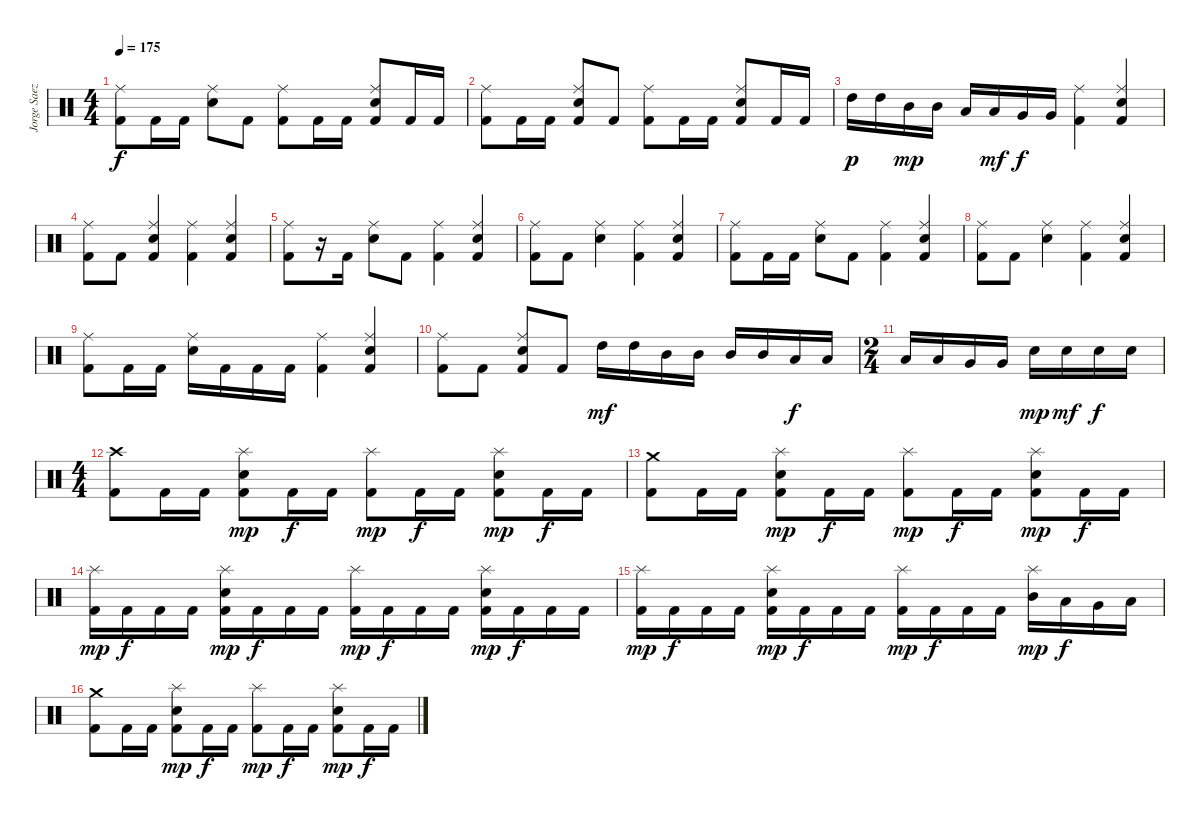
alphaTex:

\track ("Jorge Saez, Drums" "Jorge Saez") {instrument percussion}
\staff
\articulation defaults
\ts (4 4)
\tempo 175
\clef neutral
\ks c
("Kick (hit) 2" "Ride (middle)").8{dy f} "Kick (hit) 2".16 "Kick (hit) 2".16 ("Electric Snare (hit)" "Ride (middle)").8 "Kick (hit) 2".8 ("Kick (hit) 2" "Ride (middle)").8 "Kick (hit) 2".16 "Kick (hit) 2".16 ("Kick (hit) 2" "Electric Snare (hit)" "Ride (middle)").8 "Kick (hit) 2".16 "Kick (hit) 2".16 |
("Kick (hit) 2" "Ride (middle)").8 "Kick (hit) 2".16 "Kick (hit) 2".16 ("Kick (hit) 2" "Electric Snare (hit)" "Ride (middle)").8 "Kick (hit) 2".8 ("Kick (hit) 2" "Ride (middle)").8 "Kick (hit) 2".16 "Kick (hit) 2".16 ("Kick (hit) 2" "Electric Snare (hit)" "Ride (middle)").8 "Kick (hit) 2".16 "Kick (hit) 2".16 |
"High Tom (hit)".16{dy p} "High Tom (hit)".16 "Mid Tom (hit)".16{dy mp} "Mid Tom (hit)".16 "Low Tom (hit)".16 "Low Tom (hit)".16{dy mf} "Very Low Tom (hit)".16{dy f} "Very Low Tom (hit)".16 ("Kick (hit) 2" "Ride (middle)").4 ("Kick (hit) 2" "Electric Snare (hit)" "Ride (middle)").4 |
("Kick (hit) 2" "Ride (middle)").8 "Kick (hit) 2".8 ("Kick (hit) 2" "Electric Snare (hit)" "Ride (middle)").4 ("Kick (hit) 2" "Ride (middle)").4 ("Kick (hit) 2" "Electric Snare (hit)" "Ride (middle)").4 |
("Kick (hit) 2" "Ride (middle)").8 r.16 "Kick (hit) 2".16 ("Electric Snare (hit)" "Ride (middle)").8 "Kick (hit) 2".8 ("Kick (hit) 2" "Ride (middle)").4 ("Kick (hit) 2" "Electric Snare (hit)" "Ride (middle)").4 |
("Kick (hit) 2" "Ride (middle)").8 "Kick (hit) 2".8 ("Electric Snare (hit)" "Ride (middle)").4 ("Kick (hit) 2" "Ride (middle)").4 ("Kick (hit) 2" "Electric Snare (hit)" "Ride (middle)").4 |
("Kick (hit) 2" "Ride (middle)").8 "Kick (hit) 2".16 "Kick (hit) 2".16 ("Electric Snare (hit)" "Ride (middle)").8 "Kick (hit) 2".8 ("Kick (hit) 2" "Ride (middle)").4 ("Kick (hit) 2" "Electric Snare (hit)" "Ride (middle)").4 |
("Kick (hit) 2" "Ride (middle)").8 "Kick (hit) 2".8 ("Electric Snare (hit)" "Ride (middle)").4 ("Kick (hit) 2" "Ride (middle)").4 ("Kick (hit) 2" "Electric Snare (hit)" "Ride (middle)").4 |
("Kick (hit) 2" "Ride (middle)").8 "Kick (hit) 2".16 "Kick (hit) 2".16 ("Electric Snare (hit)" "Ride (middle)").16 "Kick (hit) 2".16 "Kick (hit) 2".16 "Kick (hit) 2".16 ("Kick (hit) 2" "Ride (middle)").4 ("Kick (hit) 2" "Electric Snare (hit)" "Ride (middle)").4 |
("Kick (hit) 2" "Ride (middle)").8 "Kick (hit) 2".8 ("Kick (hit) 2" "Electric Snare (hit)" "Ride (middle)").8 "Kick (hit) 2".8 "High Tom (hit)".16{dy mf} "High Tom (hit)".16 "Mid Tom (hit)".16 "Mid Tom (hit)".16 "Mid Tom (hit)".16 "Mid Tom (hit)".16 "Low Tom (hit)".16{dy f} "Low Tom (hit)".16 |
\ts (2 4)
"Low Tom (hit)".16 "Low Tom (hit)".16 "Very Low Tom (hit)".16 "Very Low Tom (hit)".16 "Electric Snare (hit)".16{dy mp} "Electric Snare (hit)".16{dy mf} "Electric Snare (hit)".16{dy f} "Electric Snare (hit)".16 |
\ts (4 4)
("Kick (hit) 2" "Crash high (hit)").8 "Kick (hit) 2".16 "Kick (hit) 2".16 ("Kick (hit) 2" "Electric Snare (hit)" "Splash (hit)").8{dy mp} "Kick (hit) 2".16{dy f} "Kick (hit) 2".16 ("Kick (hit) 2" "Splash (hit)").8{dy mp} "Kick (hit) 2".16{dy f} "Kick (hit) 2".16 ("Kick (hit) 2" "Electric Snare (hit)" "Splash (hit)").8{dy mp} "Kick (hit) 2".16{dy f} "Kick (hit) 2".16 |
("Kick (hit) 2" "Crash medium (hit)").8 "Kick (hit) 2".16 "Kick (hit) 2".16 ("Kick (hit) 2" "Electric Snare (hit)" "Splash (hit)").8{dy mp} "Kick (hit) 2".16{dy f} "Kick (hit) 2".16 ("Kick (hit) 2" "Splash (hit)").8{dy mp} "Kick (hit) 2".16{dy f} "Kick (hit) 2".16 ("Kick (hit) 2" "Electric Snare (hit)" "Splash (hit)").8{dy mp} "Kick (hit) 2".16{dy f} "Kick (hit) 2".16 |
("Kick (hit) 2" "Splash (hit)").16{dy mp} "Kick (hit) 2".16{dy f} "Kick (hit) 2".16 "Kick (hit) 2".16 ("Kick (hit) 2" "Electric Snare (hit)" "Splash (hit)").16{dy mp} "Kick (hit) 2".16{dy f} "Kick (hit) 2".16 "Kick (hit) 2".16 ("Kick (hit) 2" "Splash (hit)").16{dy mp} "Kick (hit) 2".16{dy f} "Kick (hit) 2".16 "Kick (hit) 2".16 ("Kick (hit) 2" "Electric Snare (hit)" "Splash (hit)").16{dy mp} "Kick (hit) 2".16{dy f} "Kick (hit) 2".16 "Kick (hit) 2".16 |
("Kick (hit) 2" "Splash (hit)").16{dy mp} "Kick (hit) 2".16{dy f} "Kick (hit) 2".16 "Kick (hit) 2".16 ("Kick (hit) 2" "Electric Snare (hit)" "Splash (hit)").16{dy mp} "Kick (hit) 2".16{dy f} "Kick (hit) 2".16 "Kick (hit) 2".16 ("Kick (hit) 2" "Splash (hit)").16{dy mp} "Kick (hit) 2".16{dy f} "Kick (hit) 2".16 "Kick (hit) 2".16 ("Mid Tom (hit)" "Splash (hit)").16{dy mp} "Low Tom (hit)".16{dy f} "Very Low Tom (hit)".16 "Low Floor Tom (hit)".16 |
("Kick (hit) 2" "Crash medium (hit)").8 "Kick (hit) 2".16 "Kick (hit) 2".16 ("Kick (hit) 2" "Electric Snare (hit)" "Splash (hit)").8{dy mp} "Kick (hit) 2".16{dy f} "Kick (hit) 2".16 ("Kick (hit) 2" "Splash (hit)").8{dy mp} "Kick (hit) 2".16{dy f} "Kick (hit) 2".16 ("Kick (hit) 2" "Electric Snare (hit)" "Splash (hit)").8{dy mp} "Kick (hit) 2".16{dy f} "Kick (hit) 2".16
